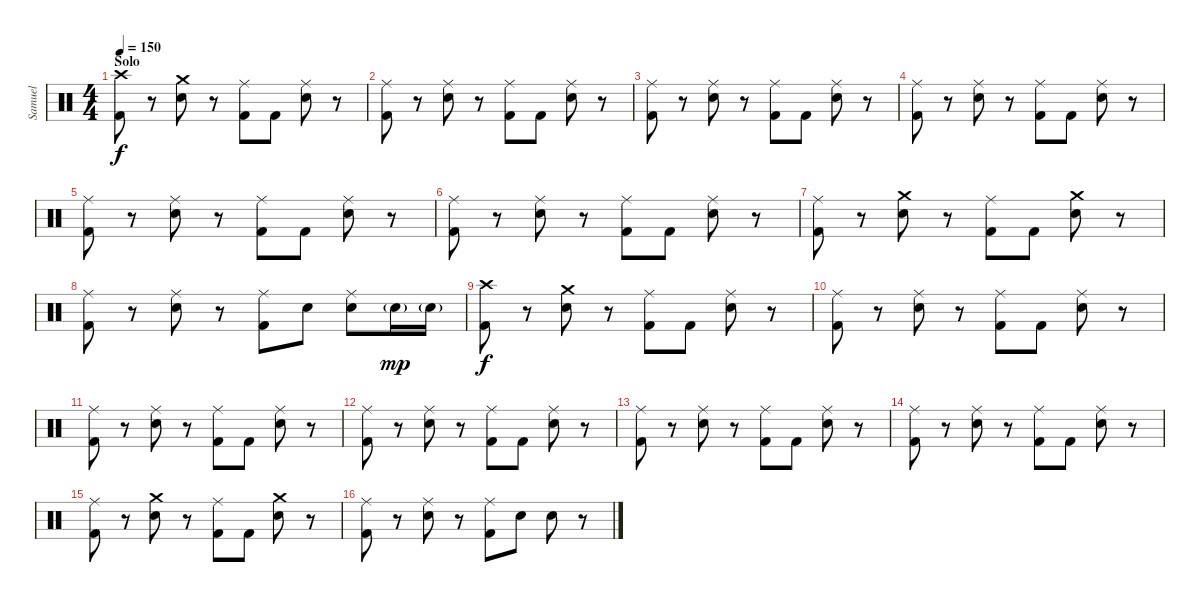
\track ("Samuel" "Samuel") {instrument percussion}
\staff {score}
\articulation defaults
\ts (4 4)
\section ("" "Solo")
\tempo 150
\clef neutral
\ks c
("Crash high (hit)" "Kick (hit) 2").8{dy f} r.8 ("Crash medium (hit)" "Snare (hit) 2").8 r.8 ("Ride (middle)" "Kick (hit) 2").8 "Kick (hit) 2".8 ("Ride (middle)" "Snare (hit) 2").8 r.8 |
("Ride (middle)" "Kick (hit) 2").8 r.8 ("Ride (middle)" "Snare (hit) 2").8 r.8 ("Ride (middle)" "Kick (hit) 2").8 "Kick (hit) 2".8 ("Ride (middle)" "Snare (hit) 2").8 r.8 |
("Ride (middle)" "Kick (hit) 2").8 r.8 ("Ride (middle)" "Snare (hit) 2").8 r.8 ("Ride (middle)" "Kick (hit) 2").8 "Kick (hit) 2".8 ("Ride (middle)" "Snare (hit) 2").8 r.8 |
("Ride (middle)" "Kick (hit) 2").8 r.8 ("Ride (middle)" "Snare (hit) 2").8 r.8 ("Ride (middle)" "Kick (hit) 2").8 "Kick (hit) 2".8 ("Ride (middle)" "Snare (hit) 2").8 r.8 |
("Ride (middle)" "Kick (hit) 2").8 r.8 ("Ride (middle)" "Snare (hit) 2").8 r.8 ("Ride (middle)" "Kick (hit) 2").8 "Kick (hit) 2".8 ("Ride (middle)" "Snare (hit) 2").8 r.8 |
("Ride (middle)" "Kick (hit) 2").8 r.8 ("Ride (middle)" "Snare (hit) 2").8 r.8 ("Ride (middle)" "Kick (hit) 2").8 "Kick (hit) 2".8 ("Ride (middle)" "Snare (hit) 2").8 r.8 |
("Ride (middle)" "Kick (hit) 2").8 r.8 ("Crash medium (hit)" "Snare (hit) 2").8 r.8 ("Ride (middle)" "Kick (hit) 2").8 "Kick (hit) 2".8 ("Crash medium (hit)" "Snare (hit) 2").8 r.8 |
("Ride (middle)" "Kick (hit) 2").8 r.8 ("Ride (middle)" "Snare (hit) 2").8 r.8 ("Ride (middle)" "Kick (hit) 2").8 "Snare (hit) 2".8 ("Ride (middle)" "Snare (hit) 2").8 "Snare (hit) 2"{g}.16{dy mp} "Snare (hit) 2"{g}.16 |
("Crash high (hit)" "Kick (hit) 2").8{dy f} r.8 ("Crash medium (hit)" "Snare (hit) 2").8 r.8 ("Ride (middle)" "Kick (hit) 2").8 "Kick (hit) 2".8 ("Ride (middle)" "Snare (hit) 2").8 r.8 |
("Ride (middle)" "Kick (hit) 2").8 r.8 ("Ride (middle)" "Snare (hit) 2").8 r.8 ("Ride (middle)" "Kick (hit) 2").8 "Kick (hit) 2".8 ("Ride (middle)" "Snare (hit) 2").8 r.8 |
("Ride (middle)" "Kick (hit) 2").8 r.8 ("Ride (middle)" "Snare (hit) 2").8 r.8 ("Ride (middle)" "Kick (hit) 2").8 "Kick (hit) 2".8 ("Ride (middle)" "Snare (hit) 2").8 r.8 |
("Ride (middle)" "Kick (hit) 2").8 r.8 ("Ride (middle)" "Snare (hit) 2").8 r.8 ("Ride (middle)" "Kick (hit) 2").8 "Kick (hit) 2".8 ("Ride (middle)" "Snare (hit) 2").8 r.8 |
("Ride (middle)" "Kick (hit) 2").8 r.8 ("Ride (middle)" "Snare (hit) 2").8 r.8 ("Ride (middle)" "Kick (hit) 2").8 "Kick (hit) 2".8 ("Ride (middle)" "Snare (hit) 2").8 r.8 |
("Ride (middle)" "Kick (hit) 2").8 r.8 ("Ride (middle)" "Snare (hit) 2").8 r.8 ("Ride (middle)" "Kick (hit) 2").8 "Kick (hit) 2".8 ("Ride (middle)" "Snare (hit) 2").8 r.8 |
("Ride (middle)" "Kick (hit) 2").8 r.8 ("Crash medium (hit)" "Snare (hit) 2").8 r.8 ("Ride (middle)" "Kick (hit) 2").8 "Kick (hit) 2".8 ("Crash medium (hit)" "Snare (hit) 2").8 r.8 |
("Ride (middle)" "Kick (hit) 2").8 r.8 ("Ride (middle)" "Snare (hit) 2").8 r.8 ("Ride (middle)" "Kick (hit) 2").8 "Snare (hit) 2".8 "Snare (hit) 2".8 r.8
